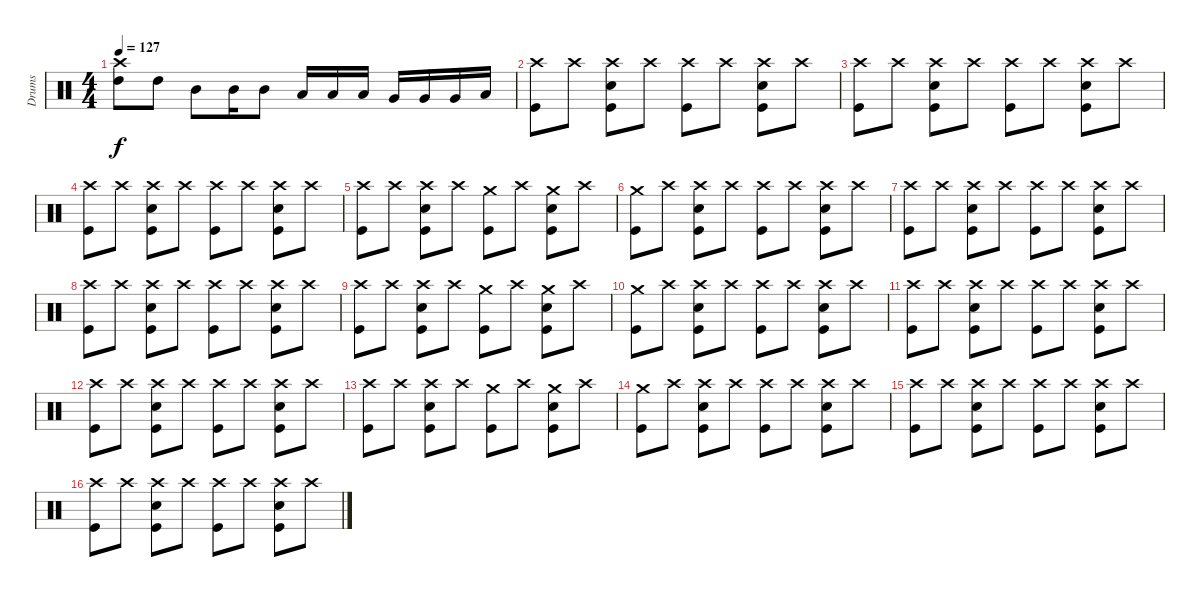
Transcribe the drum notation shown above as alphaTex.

\track ("Drums" "Drums") {instrument percussion}
\staff {score}
\articulation defaults
\ts (4 4)
\tempo 127
\clef neutral
\ks c
("Crash high (hit)" "High Tom (hit)").8{dy f} "High Tom (hit)".8 "Mid Tom (hit)".8 "Mid Tom (hit)".16 "Mid Tom (hit)".8 "Low Tom (hit)".16 "Low Tom (hit)".16 "Low Tom (hit)".16 "Very Low Tom (hit)".16 "Very Low Tom (hit)".16 "Very Low Tom (hit)".16 "Low Floor Tom (hit)".16 |
("Crash high (hit)" "Kick (hit)").8 "Crash high (hit)".8 ("Crash high (hit)" "Electric Snare (hit)" "Kick (hit)").8 "Crash high (hit)".8 ("Crash high (hit)" "Kick (hit)").8 "Crash high (hit)".8 ("Crash high (hit)" "Electric Snare (hit)" "Kick (hit)").8 "Crash high (hit)".8 |
("Crash high (hit)" "Kick (hit)").8 "Crash high (hit)".8 ("Crash high (hit)" "Electric Snare (hit)" "Kick (hit)").8 "Crash high (hit)".8 ("Crash high (hit)" "Kick (hit)").8 "Crash high (hit)".8 ("Crash high (hit)" "Electric Snare (hit)" "Kick (hit)").8 "Crash high (hit)".8 |
("Crash high (hit)" "Kick (hit)").8 "Crash high (hit)".8 ("Crash high (hit)" "Electric Snare (hit)" "Kick (hit)").8 "Crash high (hit)".8 ("Crash high (hit)" "Kick (hit)").8 "Crash high (hit)".8 ("Crash high (hit)" "Electric Snare (hit)" "Kick (hit)").8 "Crash high (hit)".8 |
("Crash high (hit)" "Kick (hit)").8 "Crash high (hit)".8 ("Crash high (hit)" "Electric Snare (hit)" "Kick (hit)").8 "Crash high (hit)".8 ("Crash medium (hit)" "Kick (hit)").8 "Crash high (hit)".8 ("Crash medium (hit)" "Electric Snare (hit)" "Kick (hit)").8 "Crash high (hit)".8 |
("Crash medium (hit)" "Kick (hit)").8 "Crash high (hit)".8 ("Crash high (hit)" "Electric Snare (hit)" "Kick (hit)").8 "Crash high (hit)".8 ("Crash high (hit)" "Kick (hit)").8 "Crash high (hit)".8 ("Crash high (hit)" "Electric Snare (hit)" "Kick (hit)").8 "Crash high (hit)".8 |
("Crash high (hit)" "Kick (hit)").8 "Crash high (hit)".8 ("Crash high (hit)" "Electric Snare (hit)" "Kick (hit)").8 "Crash high (hit)".8 ("Crash high (hit)" "Kick (hit)").8 "Crash high (hit)".8 ("Crash high (hit)" "Electric Snare (hit)" "Kick (hit)").8 "Crash high (hit)".8 |
("Crash high (hit)" "Kick (hit)").8 "Crash high (hit)".8 ("Crash high (hit)" "Electric Snare (hit)" "Kick (hit)").8 "Crash high (hit)".8 ("Crash high (hit)" "Kick (hit)").8 "Crash high (hit)".8 ("Crash high (hit)" "Electric Snare (hit)" "Kick (hit)").8 "Crash high (hit)".8 |
("Crash high (hit)" "Kick (hit)").8 "Crash high (hit)".8 ("Crash high (hit)" "Electric Snare (hit)" "Kick (hit)").8 "Crash high (hit)".8 ("Crash medium (hit)" "Kick (hit)").8 "Crash high (hit)".8 ("Crash medium (hit)" "Electric Snare (hit)" "Kick (hit)").8 "Crash high (hit)".8 |
("Crash medium (hit)" "Kick (hit)").8 "Crash high (hit)".8 ("Crash high (hit)" "Electric Snare (hit)" "Kick (hit)").8 "Crash high (hit)".8 ("Crash high (hit)" "Kick (hit)").8 "Crash high (hit)".8 ("Crash high (hit)" "Electric Snare (hit)" "Kick (hit)").8 "Crash high (hit)".8 |
("Crash high (hit)" "Kick (hit)").8 "Crash high (hit)".8 ("Crash high (hit)" "Electric Snare (hit)" "Kick (hit)").8 "Crash high (hit)".8 ("Crash high (hit)" "Kick (hit)").8 "Crash high (hit)".8 ("Crash high (hit)" "Electric Snare (hit)" "Kick (hit)").8 "Crash high (hit)".8 |
("Crash high (hit)" "Kick (hit)").8 "Crash high (hit)".8 ("Crash high (hit)" "Electric Snare (hit)" "Kick (hit)").8 "Crash high (hit)".8 ("Crash high (hit)" "Kick (hit)").8 "Crash high (hit)".8 ("Crash high (hit)" "Electric Snare (hit)" "Kick (hit)").8 "Crash high (hit)".8 |
("Crash high (hit)" "Kick (hit)").8 "Crash high (hit)".8 ("Crash high (hit)" "Electric Snare (hit)" "Kick (hit)").8 "Crash high (hit)".8 ("Crash medium (hit)" "Kick (hit)").8 "Crash high (hit)".8 ("Crash medium (hit)" "Electric Snare (hit)" "Kick (hit)").8 "Crash high (hit)".8 |
("Crash medium (hit)" "Kick (hit)").8 "Crash high (hit)".8 ("Crash high (hit)" "Electric Snare (hit)" "Kick (hit)").8 "Crash high (hit)".8 ("Crash high (hit)" "Kick (hit)").8 "Crash high (hit)".8 ("Crash high (hit)" "Electric Snare (hit)" "Kick (hit)").8 "Crash high (hit)".8 |
("Crash high (hit)" "Kick (hit)").8 "Crash high (hit)".8 ("Crash high (hit)" "Electric Snare (hit)" "Kick (hit)").8 "Crash high (hit)".8 ("Crash high (hit)" "Kick (hit)").8 "Crash high (hit)".8 ("Crash high (hit)" "Electric Snare (hit)" "Kick (hit)").8 "Crash high (hit)".8 |
("Crash high (hit)" "Kick (hit)").8 "Crash high (hit)".8 ("Crash high (hit)" "Electric Snare (hit)" "Kick (hit)").8 "Crash high (hit)".8 ("Crash high (hit)" "Kick (hit)").8 "Crash high (hit)".8 ("Crash high (hit)" "Electric Snare (hit)" "Kick (hit)").8 "Crash high (hit)".8
